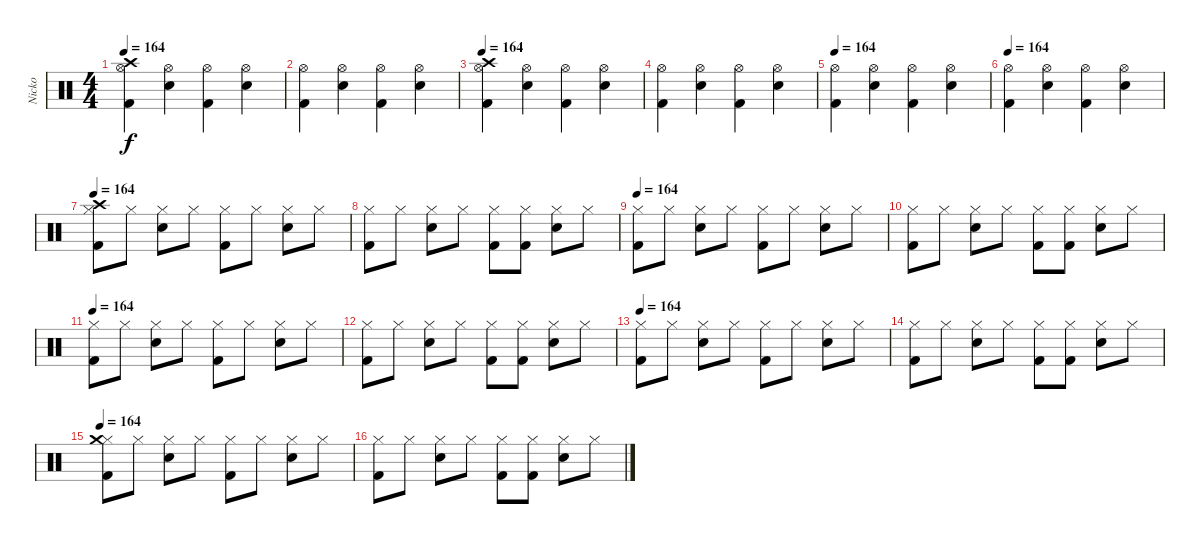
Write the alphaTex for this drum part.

\track ("Nicko" "Nicko") {instrument percussion}
\staff {score}
\articulation defaults
\ts (4 4)
\tempo 164
\clef neutral
\ks c
("Hi-Hat (open)" "Crash high (hit)" "Kick (hit) 2").4{dy f} ("Hi-Hat (open)" "Snare (hit) 2").4 ("Hi-Hat (open)" "Kick (hit) 2").4 ("Hi-Hat (open)" "Snare (hit) 2").4 |
("Hi-Hat (open)" "Kick (hit) 2").4 ("Hi-Hat (open)" "Snare (hit) 2").4 ("Hi-Hat (open)" "Kick (hit) 2").4 ("Hi-Hat (open)" "Snare (hit) 2").4 |
\tempo 164
("Hi-Hat (open)" "Crash high (hit)" "Kick (hit) 2").4 ("Hi-Hat (open)" "Snare (hit) 2").4 ("Hi-Hat (open)" "Kick (hit) 2").4 ("Hi-Hat (open)" "Snare (hit) 2").4 |
("Hi-Hat (open)" "Kick (hit) 2").4 ("Hi-Hat (open)" "Snare (hit) 2").4 ("Hi-Hat (open)" "Kick (hit) 2").4 ("Hi-Hat (open)" "Snare (hit) 2").4 |
\tempo 164
("Hi-Hat (open)" "Kick (hit) 2").4 ("Hi-Hat (open)" "Snare (hit) 2").4 ("Hi-Hat (open)" "Kick (hit) 2").4 ("Hi-Hat (open)" "Snare (hit) 2").4 |
\tempo 164
("Hi-Hat (open)" "Kick (hit) 2").4 ("Hi-Hat (open)" "Snare (hit) 2").4 ("Hi-Hat (open)" "Kick (hit) 2").4 ("Hi-Hat (open)" "Snare (hit) 2").4 |
\tempo 164
("Hi-Hat (closed)" "Crash high (hit)" "Kick (hit) 2").8 "Hi-Hat (closed)".8 ("Hi-Hat (closed)" "Snare (hit) 2").8 "Hi-Hat (closed)".8 ("Hi-Hat (closed)" "Kick (hit) 2").8 "Hi-Hat (closed)".8 ("Hi-Hat (closed)" "Snare (hit) 2").8 "Hi-Hat (closed)".8 |
("Hi-Hat (closed)" "Kick (hit) 2").8 "Hi-Hat (closed)".8 ("Hi-Hat (closed)" "Snare (hit) 2").8 "Hi-Hat (closed)".8 ("Hi-Hat (closed)" "Kick (hit) 2").8 ("Hi-Hat (closed)" "Kick (hit) 2").8 ("Hi-Hat (closed)" "Snare (hit) 2").8 "Hi-Hat (closed)".8 |
\tempo 164
("Hi-Hat (closed)" "Kick (hit) 2").8 "Hi-Hat (closed)".8 ("Hi-Hat (closed)" "Snare (hit) 2").8 "Hi-Hat (closed)".8 ("Hi-Hat (closed)" "Kick (hit) 2").8 "Hi-Hat (closed)".8 ("Hi-Hat (closed)" "Snare (hit) 2").8 "Hi-Hat (closed)".8 |
("Hi-Hat (closed)" "Kick (hit) 2").8 "Hi-Hat (closed)".8 ("Hi-Hat (closed)" "Snare (hit) 2").8 "Hi-Hat (closed)".8 ("Hi-Hat (closed)" "Kick (hit) 2").8 ("Hi-Hat (closed)" "Kick (hit) 2").8 ("Hi-Hat (closed)" "Snare (hit) 2").8 "Hi-Hat (closed)".8 |
\tempo 164
("Hi-Hat (closed)" "Kick (hit) 2").8 "Hi-Hat (closed)".8 ("Hi-Hat (closed)" "Snare (hit) 2").8 "Hi-Hat (closed)".8 ("Hi-Hat (closed)" "Kick (hit) 2").8 "Hi-Hat (closed)".8 ("Hi-Hat (closed)" "Snare (hit) 2").8 "Hi-Hat (closed)".8 |
("Hi-Hat (closed)" "Kick (hit) 2").8 "Hi-Hat (closed)".8 ("Hi-Hat (closed)" "Snare (hit) 2").8 "Hi-Hat (closed)".8 ("Hi-Hat (closed)" "Kick (hit) 2").8 ("Hi-Hat (closed)" "Kick (hit) 2").8 ("Hi-Hat (closed)" "Snare (hit) 2").8 "Hi-Hat (closed)".8 |
\tempo 164
("Hi-Hat (closed)" "Kick (hit) 2").8 "Hi-Hat (closed)".8 ("Hi-Hat (closed)" "Snare (hit) 2").8 "Hi-Hat (closed)".8 ("Hi-Hat (closed)" "Kick (hit) 2").8 "Hi-Hat (closed)".8 ("Hi-Hat (closed)" "Snare (hit) 2").8 "Hi-Hat (closed)".8 |
("Hi-Hat (closed)" "Kick (hit) 2").8 "Hi-Hat (closed)".8 ("Hi-Hat (closed)" "Snare (hit) 2").8 "Hi-Hat (closed)".8 ("Hi-Hat (closed)" "Kick (hit) 2").8 ("Hi-Hat (closed)" "Kick (hit) 2").8 ("Hi-Hat (closed)" "Snare (hit) 2").8 "Hi-Hat (closed)".8 |
\tempo 164
("Hi-Hat (closed)" "Crash medium (hit)" "Kick (hit) 2").8 "Hi-Hat (closed)".8 ("Hi-Hat (closed)" "Snare (hit) 2").8 "Hi-Hat (closed)".8 ("Hi-Hat (closed)" "Kick (hit) 2").8 "Hi-Hat (closed)".8 ("Hi-Hat (closed)" "Snare (hit) 2").8 "Hi-Hat (closed)".8 |
("Hi-Hat (closed)" "Kick (hit) 2").8 "Hi-Hat (closed)".8 ("Hi-Hat (closed)" "Snare (hit) 2").8 "Hi-Hat (closed)".8 ("Hi-Hat (closed)" "Kick (hit) 2").8 ("Hi-Hat (closed)" "Kick (hit) 2").8 ("Hi-Hat (closed)" "Snare (hit) 2").8 "Hi-Hat (closed)".8
